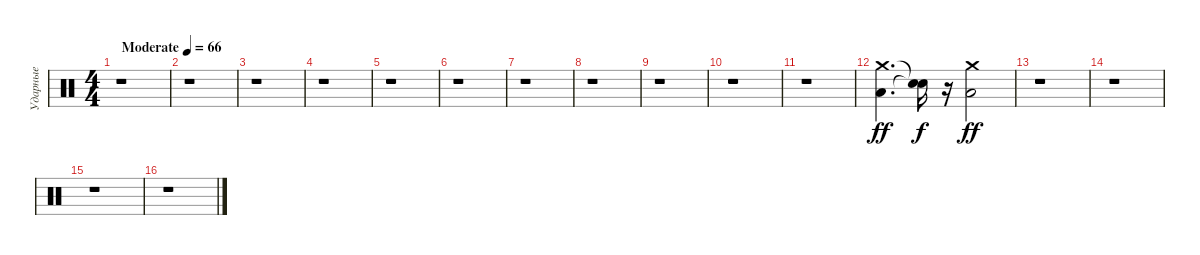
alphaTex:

\track ("Ударные" "Ударные") {instrument percussion}
\staff {score}
\articulation defaults
\ts (4 4)
\tempo (66 "Moderate")
\clef neutral
\ks c
r.1{dy ff} |
r.1 |
r.1 |
r.1 |
r.1 |
r.1 |
r.1 |
r.1 |
r.1 |
r.1 |
r.1 |
("Crash medium (hit)" "Low Tom (hit)").4{d} ("Snare (hit)"{t} "Snare (hit)"{t}).16{dy f} r.16 ("Crash medium (hit)" "Low Tom (hit)").2{dy ff} |
r.1 |
r.1 |
r.1 |
r.1
